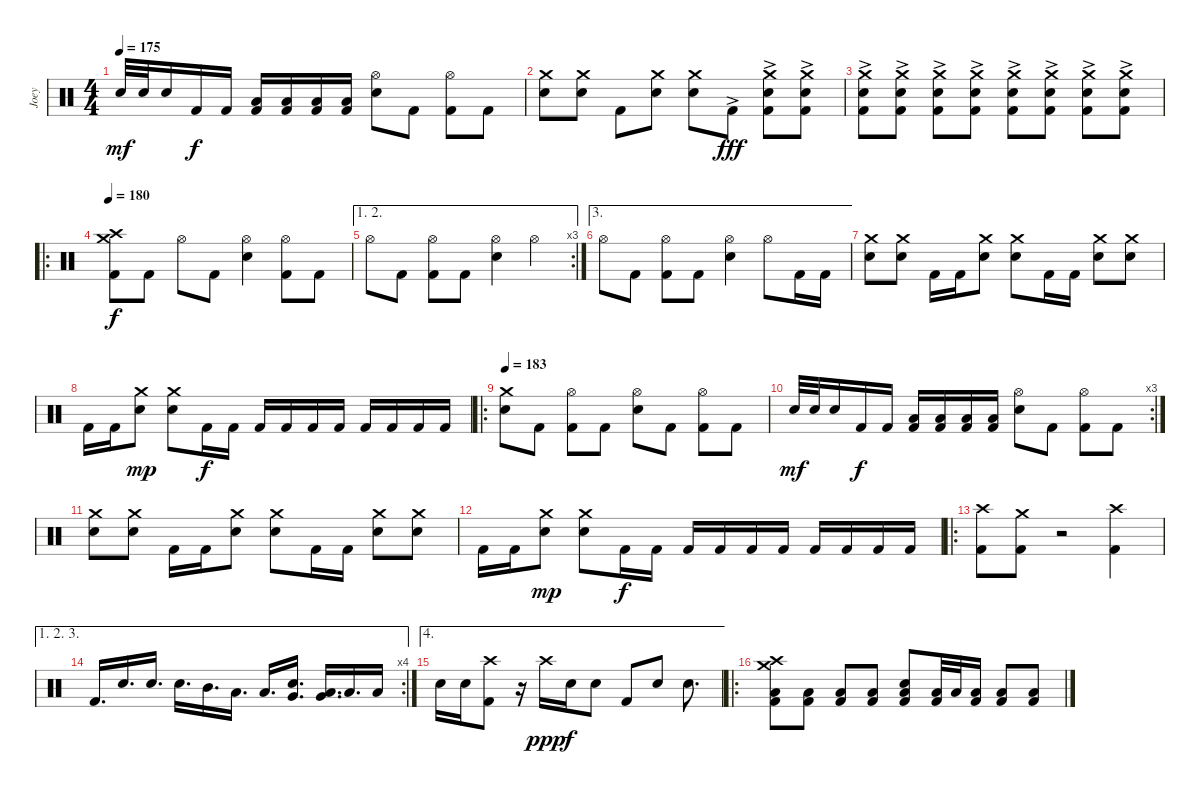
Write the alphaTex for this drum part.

\track ("Joey" "Joey") {instrument percussion}
\staff {score}
\articulation defaults
\ts (4 4)
\tempo 175
\clef neutral
\ks c "Electric Snare (hit)".32{dy mf} "Electric Snare (hit)".32 "Electric Snare (hit)".16 "Kick (hit) 2".16{dy f} "Kick (hit) 2".16
("Low Floor Tom (hit)" "Kick (hit) 2").16 ("Low Floor Tom (hit)" "Kick (hit) 2").16 ("Low Floor Tom (hit)" "Kick (hit) 2").16 ("Low Floor Tom (hit)" "Kick (hit) 2").16 ("Hi-Hat (open)" "Electric Snare (hit)").8 "Kick (hit) 2".8 ("Hi-Hat (open)" "Kick (hit) 2").8 "Kick (hit) 2".8 |
("Crash medium (hit)" "Electric Snare (hit)").8 ("Crash medium (hit)" "Electric Snare (hit)").8 "Kick (hit) 2".8 ("Crash medium (hit)" "Electric Snare (hit)").8 ("Crash medium (hit)" "Electric Snare (hit)").8 "Kick (hit) 2"{ac}.8{dy fff} ("Crash medium (hit)" "Electric Snare (hit)" "Kick (hit) 2"{ac}).8 ("Crash medium (hit)" "Electric Snare (hit)" "Kick (hit) 2"{ac}).8 |
("Crash medium (hit)" "Electric Snare (hit)" "Kick (hit) 2"{ac}).8 ("Crash medium (hit)" "Electric Snare (hit)" "Kick (hit) 2"{ac}).8 ("Crash medium (hit)" "Electric Snare (hit)" "Kick (hit) 2"{ac}).8 ("Crash medium (hit)" "Electric Snare (hit)" "Kick (hit) 2"{ac}).8 ("Crash medium (hit)" "Electric Snare (hit)" "Kick (hit) 2"{ac}).8 ("Crash medium (hit)" "Electric Snare (hit)" "Kick (hit) 2"{ac}).8 ("Crash medium (hit)" "Electric Snare (hit)" "Kick (hit) 2"{ac}).8 ("Crash medium (hit)" "Electric Snare (hit)" "Kick (hit) 2"{ac}).8 |
\ro
\tempo 180
("Crash high (hit)" "Crash medium (hit)" "Kick (hit) 2").8{dy f} "Kick (hit) 2".8 "Hi-Hat (open)".8 "Kick (hit) 2".8 ("Hi-Hat (open)" "Electric Snare (hit)").4 ("Hi-Hat (open)" "Kick (hit) 2").8 "Kick (hit) 2".8 |
\ae (1 2)
\rc 3 "Hi-Hat (open)".8 "Kick (hit) 2".8
("Hi-Hat (open)" "Kick (hit) 2").8 "Kick (hit) 2".8 ("Hi-Hat (open)" "Electric Snare (hit)").4 "Hi-Hat (open)".4 |
\ae 3 "Hi-Hat (open)".8 "Kick (hit) 2".8
("Hi-Hat (open)" "Kick (hit) 2").8 "Kick (hit) 2".8 ("Hi-Hat (open)" "Electric Snare (hit)").4 "Hi-Hat (open)".8 "Kick (hit) 2".16 "Kick (hit) 2".16 |
("Crash medium (hit)" "Electric Snare (hit)").8 ("Crash medium (hit)" "Electric Snare (hit)").8 "Kick (hit) 2".16 "Kick (hit) 2".16 ("Crash medium (hit)" "Electric Snare (hit)").8 ("Crash medium (hit)" "Electric Snare (hit)").8 "Kick (hit) 2".16 "Kick (hit) 2".16 ("Crash medium (hit)" "Electric Snare (hit)").8 ("Crash medium (hit)" "Electric Snare (hit)").8 |
"Kick (hit) 2".16 "Kick (hit) 2".16 ("Crash medium (hit)" "Electric Snare (hit)").8{dy mp} ("Crash medium (hit)" "Electric Snare (hit)").8 "Kick (hit) 2".16{dy f} "Kick (hit) 2".16 "Kick (hit) 2".16 "Kick (hit) 2".16 "Kick (hit) 2".16 "Kick (hit) 2".16 "Kick (hit) 2".16 "Kick (hit) 2".16 "Kick (hit) 2".16 "Kick (hit) 2".16 |
\ro
\tempo 183
("Crash medium (hit)" "Electric Snare (hit)").8 "Kick (hit) 2".8 ("Hi-Hat (open)" "Kick (hit) 2").8 "Kick (hit) 2".8 ("Hi-Hat (open)" "Electric Snare (hit)").8 "Kick (hit) 2".8 ("Hi-Hat (open)" "Kick (hit) 2").8 "Kick (hit) 2".8 |
\rc 3 "Electric Snare (hit)".32{dy mf} "Electric Snare (hit)".32 "Electric Snare (hit)".16 "Kick (hit) 2".16{dy f} "Kick (hit) 2".16
("Low Floor Tom (hit)" "Kick (hit) 2").16 ("Low Floor Tom (hit)" "Kick (hit) 2").16 ("Low Floor Tom (hit)" "Kick (hit) 2").16 ("Low Floor Tom (hit)" "Kick (hit) 2").16 ("Hi-Hat (open)" "Electric Snare (hit)").8 "Kick (hit) 2".8 ("Hi-Hat (open)" "Kick (hit) 2").8 "Kick (hit) 2".8 |
("Crash medium (hit)" "Electric Snare (hit)").8 ("Crash medium (hit)" "Electric Snare (hit)").8 "Kick (hit) 2".16 "Kick (hit) 2".16 ("Crash medium (hit)" "Electric Snare (hit)").8 ("Crash medium (hit)" "Electric Snare (hit)").8 "Kick (hit) 2".16 "Kick (hit) 2".16 ("Crash medium (hit)" "Electric Snare (hit)").8 ("Crash medium (hit)" "Electric Snare (hit)").8 |
"Kick (hit) 2".16 "Kick (hit) 2".16 ("Crash medium (hit)" "Electric Snare (hit)").8{dy mp} ("Crash medium (hit)" "Electric Snare (hit)").8 "Kick (hit) 2".16{dy f} "Kick (hit) 2".16 "Kick (hit) 2".16 "Kick (hit) 2".16 "Kick (hit) 2".16 "Kick (hit) 2".16 "Kick (hit) 2".16 "Kick (hit) 2".16 "Kick (hit) 2".16 "Kick (hit) 2".16 |
\ro
("Crash high (hit)" "Kick (hit) 2").8 ("Crash medium (hit)" "Kick (hit) 2").8 r.2 ("Crash high (hit)" "Kick (hit) 2").4 |
\ae (1 2 3)
\rc 4 "Kick (hit) 2".16{d} "Electric Snare (hit)".16{d} "Electric Snare (hit)".16{d} "Electric Snare (hit)".16{d} "Mid Tom (hit)".16{d} "Low Tom (hit)".16{d} "Low Tom (hit)".16{d}
("Electric Snare (hit)" "Very Low Tom (hit)").16{d} ("Very Low Tom (hit)" "Low Floor Tom (hit)").16{d} "Low Floor Tom (hit)".16{d} "Low Floor Tom (hit)".16 |
\ae 4 "Electric Snare (hit)".16 "Electric Snare (hit)".16
("Crash high (hit)" "Kick (hit) 2").8 r.16 "Crash high (hit)".16{dy ppp} "Electric Snare (hit)".16{dy f} "Electric Snare (hit)".8 "Kick (hit) 2".8 "Electric Snare (hit)".8 "Electric Snare (hit)".8{d} |
\ro
("Crash high (hit)" "Crash medium (hit)" "Low Floor Tom (hit)" "Kick (hit) 2").8 ("Low Floor Tom (hit)" "Kick (hit) 2").8 ("Low Floor Tom (hit)" "Kick (hit) 2").8 ("Low Floor Tom (hit)" "Kick (hit) 2").8 ("Electric Snare (hit)" "Low Floor Tom (hit)" "Kick (hit) 2").8 ("Low Tom (hit)" "Kick (hit) 2").32 "Low Tom (hit)".32 ("Low Tom (hit)" "Kick (hit) 2").16 ("Low Tom (hit)" "Kick (hit) 2").8 ("Low Tom (hit)" "Kick (hit) 2").8
